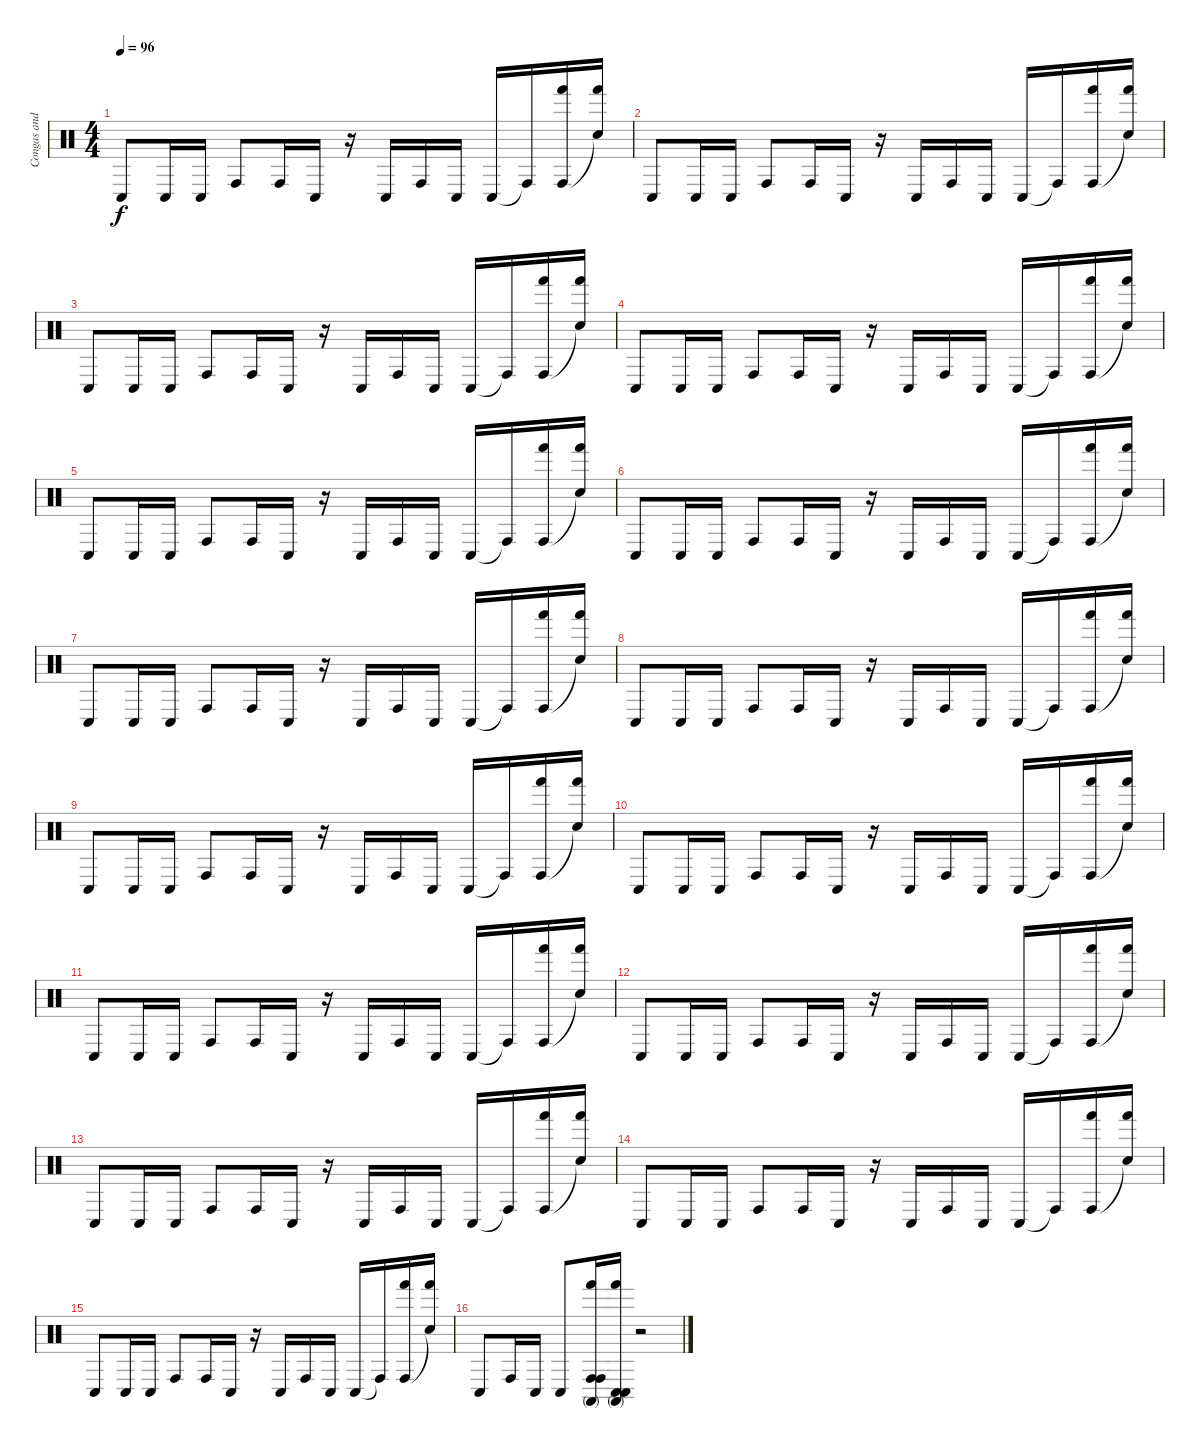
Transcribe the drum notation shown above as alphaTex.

\track ("Congas and Bongos" "Congas and") {instrument percussion}
\staff {score}
\articulation defaults
\ts (4 4)
\tempo 96
\clef neutral
\ks c "Conga low (hit)".8{dy f} "Conga low (hit)".16 "Conga low (hit)".16 "Conga high (hit)".8 "Conga high (hit)".16 "Conga low (hit)".16
r.16 "Conga low (hit)".16 "Conga high (hit)".16 "Conga low (hit)".16 "Conga low (hit)".16 "Conga high (hit)"{t}.16 ("Conga high (hit)" "Hand (hit)").16 ("Snare (hit)"{t} "Hand (hit)").16 |
"Conga low (hit)".8 "Conga low (hit)".16 "Conga low (hit)".16 "Conga high (hit)".8 "Conga high (hit)".16 "Conga low (hit)".16 r.16 "Conga low (hit)".16 "Conga high (hit)".16 "Conga low (hit)".16 "Conga low (hit)".16 "Conga high (hit)"{t}.16 ("Conga high (hit)" "Hand (hit)").16 ("Snare (hit)"{t} "Hand (hit)").16 |
"Conga low (hit)".8 "Conga low (hit)".16 "Conga low (hit)".16 "Conga high (hit)".8 "Conga high (hit)".16 "Conga low (hit)".16 r.16 "Conga low (hit)".16 "Conga high (hit)".16 "Conga low (hit)".16 "Conga low (hit)".16 "Conga high (hit)"{t}.16 ("Conga high (hit)" "Hand (hit)").16 ("Snare (hit)"{t} "Hand (hit)").16 |
"Conga low (hit)".8 "Conga low (hit)".16 "Conga low (hit)".16 "Conga high (hit)".8 "Conga high (hit)".16 "Conga low (hit)".16 r.16 "Conga low (hit)".16 "Conga high (hit)".16 "Conga low (hit)".16 "Conga low (hit)".16 "Conga high (hit)"{t}.16 ("Conga high (hit)" "Hand (hit)").16 ("Snare (hit)"{t} "Hand (hit)").16 |
"Conga low (hit)".8 "Conga low (hit)".16 "Conga low (hit)".16 "Conga high (hit)".8 "Conga high (hit)".16 "Conga low (hit)".16 r.16 "Conga low (hit)".16 "Conga high (hit)".16 "Conga low (hit)".16 "Conga low (hit)".16 "Conga high (hit)"{t}.16 ("Conga high (hit)" "Hand (hit)").16 ("Snare (hit)"{t} "Hand (hit)").16 |
"Conga low (hit)".8 "Conga low (hit)".16 "Conga low (hit)".16 "Conga high (hit)".8 "Conga high (hit)".16 "Conga low (hit)".16 r.16 "Conga low (hit)".16 "Conga high (hit)".16 "Conga low (hit)".16 "Conga low (hit)".16 "Conga high (hit)"{t}.16 ("Conga high (hit)" "Hand (hit)").16 ("Snare (hit)"{t} "Hand (hit)").16 |
"Conga low (hit)".8 "Conga low (hit)".16 "Conga low (hit)".16 "Conga high (hit)".8 "Conga high (hit)".16 "Conga low (hit)".16 r.16 "Conga low (hit)".16 "Conga high (hit)".16 "Conga low (hit)".16 "Conga low (hit)".16 "Conga high (hit)"{t}.16 ("Conga high (hit)" "Hand (hit)").16 ("Snare (hit)"{t} "Hand (hit)").16 |
"Conga low (hit)".8 "Conga low (hit)".16 "Conga low (hit)".16 "Conga high (hit)".8 "Conga high (hit)".16 "Conga low (hit)".16 r.16 "Conga low (hit)".16 "Conga high (hit)".16 "Conga low (hit)".16 "Conga low (hit)".16 "Conga high (hit)"{t}.16 ("Conga high (hit)" "Hand (hit)").16 ("Snare (hit)"{t} "Hand (hit)").16 |
"Conga low (hit)".8 "Conga low (hit)".16 "Conga low (hit)".16 "Conga high (hit)".8 "Conga high (hit)".16 "Conga low (hit)".16 r.16 "Conga low (hit)".16 "Conga high (hit)".16 "Conga low (hit)".16 "Conga low (hit)".16 "Conga high (hit)"{t}.16 ("Conga high (hit)" "Hand (hit)").16 ("Snare (hit)"{t} "Hand (hit)").16 |
"Conga low (hit)".8 "Conga low (hit)".16 "Conga low (hit)".16 "Conga high (hit)".8 "Conga high (hit)".16 "Conga low (hit)".16 r.16 "Conga low (hit)".16 "Conga high (hit)".16 "Conga low (hit)".16 "Conga low (hit)".16 "Conga high (hit)"{t}.16 ("Conga high (hit)" "Hand (hit)").16 ("Snare (hit)"{t} "Hand (hit)").16 |
"Conga low (hit)".8 "Conga low (hit)".16 "Conga low (hit)".16 "Conga high (hit)".8 "Conga high (hit)".16 "Conga low (hit)".16 r.16 "Conga low (hit)".16 "Conga high (hit)".16 "Conga low (hit)".16 "Conga low (hit)".16 "Conga high (hit)"{t}.16 ("Conga high (hit)" "Hand (hit)").16 ("Snare (hit)"{t} "Hand (hit)").16 |
"Conga low (hit)".8 "Conga low (hit)".16 "Conga low (hit)".16 "Conga high (hit)".8 "Conga high (hit)".16 "Conga low (hit)".16 r.16 "Conga low (hit)".16 "Conga high (hit)".16 "Conga low (hit)".16 "Conga low (hit)".16 "Conga high (hit)"{t}.16 ("Conga high (hit)" "Hand (hit)").16 ("Snare (hit)"{t} "Hand (hit)").16 |
"Conga low (hit)".8 "Conga low (hit)".16 "Conga low (hit)".16 "Conga high (hit)".8 "Conga high (hit)".16 "Conga low (hit)".16 r.16 "Conga low (hit)".16 "Conga high (hit)".16 "Conga low (hit)".16 "Conga low (hit)".16 "Conga high (hit)"{t}.16 ("Conga high (hit)" "Hand (hit)").16 ("Snare (hit)"{t} "Hand (hit)").16 |
"Conga low (hit)".8 "Conga low (hit)".16 "Conga low (hit)".16 "Conga high (hit)".8 "Conga high (hit)".16 "Conga low (hit)".16 r.16 "Conga low (hit)".16 "Conga high (hit)".16 "Conga low (hit)".16 "Conga low (hit)".16 "Conga high (hit)"{t}.16 ("Conga high (hit)" "Hand (hit)").16 ("Snare (hit)"{t} "Hand (hit)").16 |
"Conga low (hit)".8 "Conga low (hit)".16 "Conga low (hit)".16 "Conga high (hit)".8 "Conga high (hit)".16 "Conga low (hit)".16 r.16 "Conga low (hit)".16 "Conga high (hit)".16 "Conga low (hit)".16 "Conga low (hit)".16 "Conga high (hit)"{t}.16 ("Conga high (hit)" "Hand (hit)").16 ("Snare (hit)"{t} "Hand (hit)").16 |
"Conga low (hit)".8 "Conga high (hit)".16 "Conga low (hit)".16 "Conga low (hit)".8 ("Conga high (hit)" "Conga high (hit)" "Hand (hit)" "Conga high (mute)").16 ("Conga low (hit)" "Conga low (hit)" "Hand (hit)" "Conga high (mute)").16 r.2
